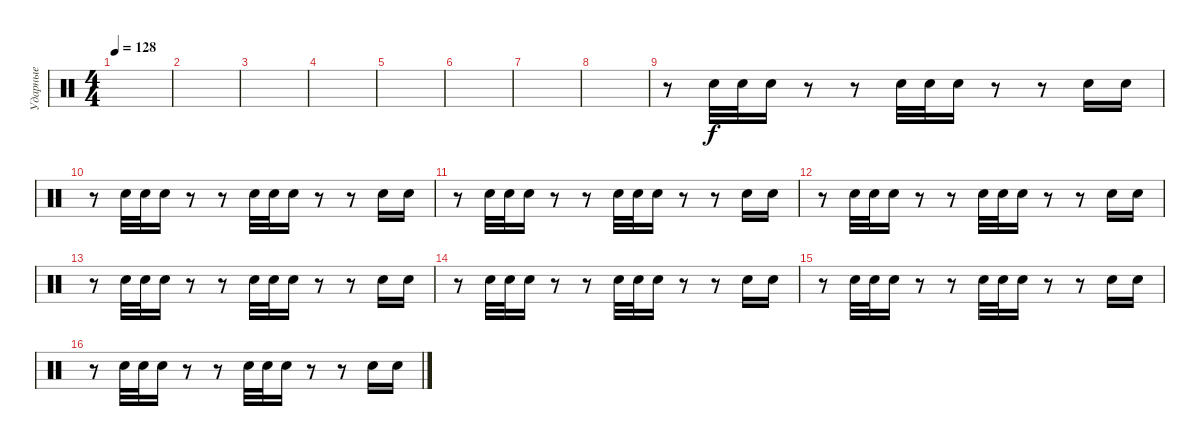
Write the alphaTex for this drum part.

\track ("Ударные" "Ударные") {instrument percussion}
\staff {score}
\articulation defaults
\ts (4 4)
\tempo 128
\clef neutral
\ks c
|
|
|
|
|
|
|
|
r.8 "Snare (hit) 2".32 "Snare (hit) 2".32 "Snare (hit) 2".16 r.8 r.8 "Snare (hit) 2".32 "Snare (hit) 2".32 "Snare (hit) 2".16 r.8 r.8 "Snare (hit) 2".16 "Snare (hit) 2".16 |
r.8 "Snare (hit) 2".32 "Snare (hit) 2".32 "Snare (hit) 2".16 r.8 r.8 "Snare (hit) 2".32 "Snare (hit) 2".32 "Snare (hit) 2".16 r.8 r.8 "Snare (hit) 2".16 "Snare (hit) 2".16 |
r.8 "Snare (hit) 2".32 "Snare (hit) 2".32 "Snare (hit) 2".16 r.8 r.8 "Snare (hit) 2".32 "Snare (hit) 2".32 "Snare (hit) 2".16 r.8 r.8 "Snare (hit) 2".16 "Snare (hit) 2".16 |
r.8 "Snare (hit) 2".32 "Snare (hit) 2".32 "Snare (hit) 2".16 r.8 r.8 "Snare (hit) 2".32 "Snare (hit) 2".32 "Snare (hit) 2".16 r.8 r.8 "Snare (hit) 2".16 "Snare (hit) 2".16 |
r.8 "Snare (hit) 2".32 "Snare (hit) 2".32 "Snare (hit) 2".16 r.8 r.8 "Snare (hit) 2".32 "Snare (hit) 2".32 "Snare (hit) 2".16 r.8 r.8 "Snare (hit) 2".16 "Snare (hit) 2".16 |
r.8 "Snare (hit) 2".32 "Snare (hit) 2".32 "Snare (hit) 2".16 r.8 r.8 "Snare (hit) 2".32 "Snare (hit) 2".32 "Snare (hit) 2".16 r.8 r.8 "Snare (hit) 2".16 "Snare (hit) 2".16 |
r.8 "Snare (hit) 2".32 "Snare (hit) 2".32 "Snare (hit) 2".16 r.8 r.8 "Snare (hit) 2".32 "Snare (hit) 2".32 "Snare (hit) 2".16 r.8 r.8 "Snare (hit) 2".16 "Snare (hit) 2".16 |
r.8 "Snare (hit) 2".32 "Snare (hit) 2".32 "Snare (hit) 2".16 r.8 r.8 "Snare (hit) 2".32 "Snare (hit) 2".32 "Snare (hit) 2".16 r.8 r.8 "Snare (hit) 2".16 "Snare (hit) 2".16
